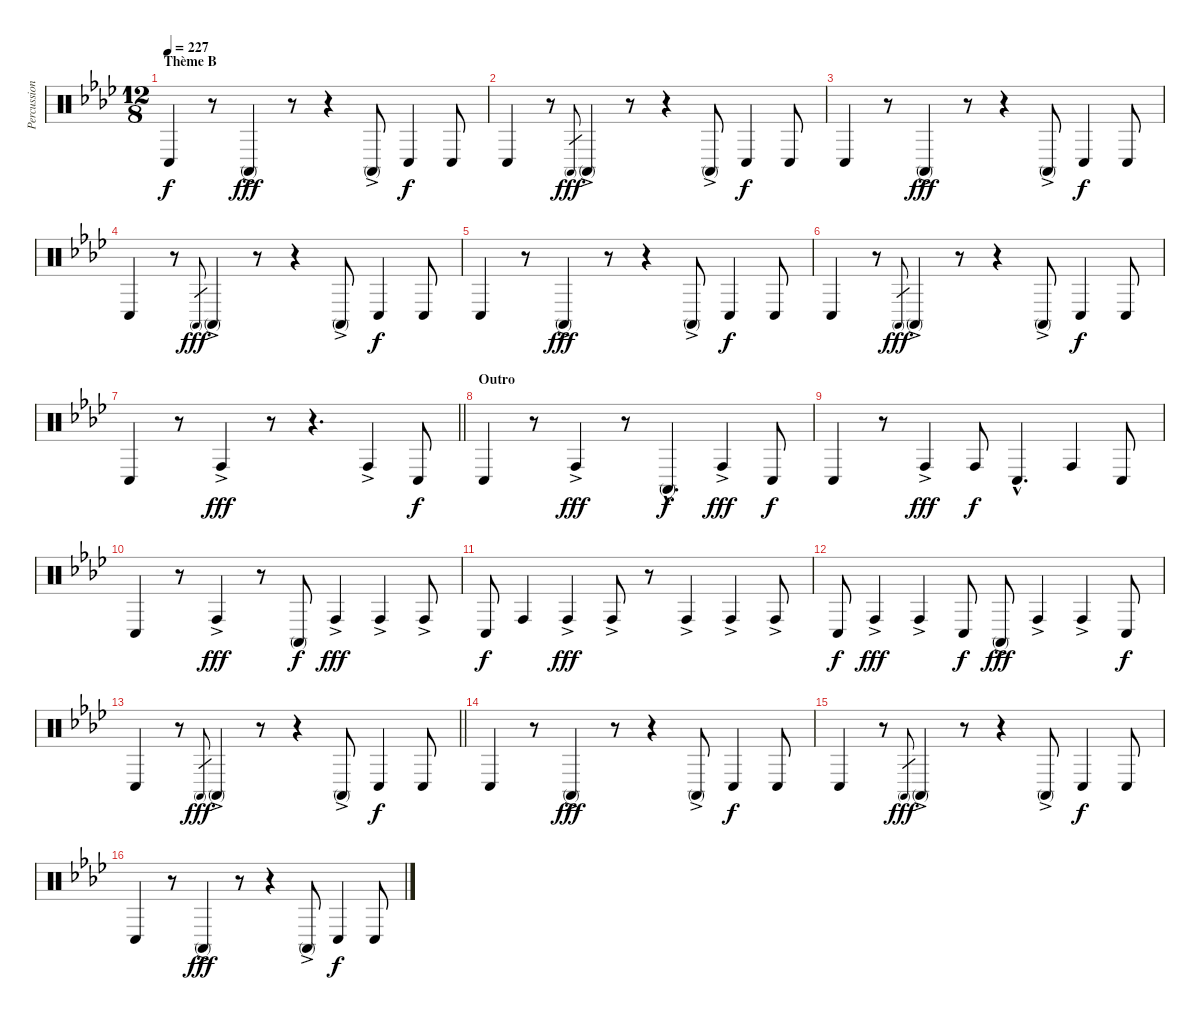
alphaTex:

\track ("Percussions" "Percussion") {instrument percussion}
\staff {score}
\articulation defaults
\ts (12 8)
\section ("" "Thème B")
\tempo 227
\clef neutral
\ks fminor "Conga low (hit)".4{dy f volume 13 balance 8}
r.8 "Conga high (mute)"{ac}.4{dy fff} r.8 r.4 "Conga high (mute)"{ac}.8 "Conga low (hit)".4{dy f} "Conga low (hit)".8 |
"Conga low (hit)".4 r.8 "Conga high (mute)".8{gr dy fff} "Conga high (mute)"{ac}.4 r.8 r.4 "Conga high (mute)"{ac}.8 "Conga low (hit)".4{dy f} "Conga low (hit)".8 |
"Conga low (hit)".4 r.8 "Conga high (mute)"{ac}.4{dy fff} r.8 r.4 "Conga high (mute)"{ac}.8 "Conga low (hit)".4{dy f} "Conga low (hit)".8 |
"Conga low (hit)".4 r.8 "Conga high (mute)".8{gr dy fff} "Conga high (mute)"{ac}.4 r.8 r.4 "Conga high (mute)"{ac}.8 "Conga low (hit)".4{dy f} "Conga low (hit)".8 |
"Conga low (hit)".4 r.8 "Conga high (mute)"{ac}.4{dy fff} r.8 r.4 "Conga high (mute)"{ac}.8 "Conga low (hit)".4{dy f} "Conga low (hit)".8 |
"Conga low (hit)".4 r.8 "Conga high (mute)".8{gr dy fff} "Conga high (mute)"{ac}.4 r.8 r.4 "Conga high (mute)"{ac}.8 "Conga low (hit)".4{dy f} "Conga low (hit)".8 |
\barLineRight lightlight "Conga low (hit)".4
r.8 "Conga high (hit)"{ac}.4{dy fff} r.8 r.4{d} "Conga high (hit)"{ac}.4 "Conga low (hit)".8{dy f} |
\section ("" "Outro")
"Conga low (hit)".4{volume 11 balance 8} r.8 "Conga high (hit)"{ac}.4{dy fff} r.8 "Conga high (mute)"{hac}.4{d dy f} "Conga high (hit)"{ac}.4{dy fff} "Conga low (hit)".8{dy f} |
"Conga low (hit)".4 r.8 "Conga high (hit)"{ac}.4{dy fff} "Conga high (hit)".8{dy f} "Conga low (hit)"{hac}.4{d} "Conga high (hit)".4 "Conga low (hit)".8 |
"Conga low (hit)".4 r.8 "Conga high (hit)"{ac}.4{dy fff} r.8 "Conga high (mute)".8{dy f} "Conga high (hit)"{ac}.4{dy fff} "Conga high (hit)"{ac}.4 "Conga high (hit)"{ac}.8 |
"Conga low (hit)".8{dy f} "Conga high (hit)".4 "Conga high (hit)"{ac}.4{dy fff} "Conga high (hit)"{ac}.8 r.8 "Conga high (hit)"{ac}.4 "Conga high (hit)"{ac}.4 "Conga high (hit)"{ac}.8 |
"Conga low (hit)".8{dy f} "Conga high (hit)"{ac}.4{dy fff} "Conga high (hit)"{ac}.4 "Conga low (hit)".8{dy f} "Conga high (mute)"{ac}.8{dy fff} "Conga high (hit)"{ac}.4 "Conga high (hit)"{ac}.4 "Conga low (hit)".8{dy f} |
\barLineRight lightlight "Conga low (hit)".4
r.8 "Conga high (mute)".8{gr dy fff} "Conga high (mute)"{ac}.4 r.8 r.4 "Conga high (mute)"{ac}.8 "Conga low (hit)".4{dy f} "Conga low (hit)".8 |
"Conga low (hit)".4{volume 6 balance 8} r.8 "Conga high (mute)"{ac}.4{dy fff} r.8 r.4 "Conga high (mute)"{ac}.8 "Conga low (hit)".4{dy f} "Conga low (hit)".8 |
"Conga low (hit)".4 r.8 "Conga high (mute)".8{gr dy fff} "Conga high (mute)"{ac}.4 r.8 r.4 "Conga high (mute)"{ac}.8 "Conga low (hit)".4{dy f} "Conga low (hit)".8 |
"Conga low (hit)".4 r.8 "Conga high (mute)"{ac}.4{dy fff} r.8 r.4 "Conga high (mute)"{ac}.8 "Conga low (hit)".4{dy f} "Conga low (hit)".8
